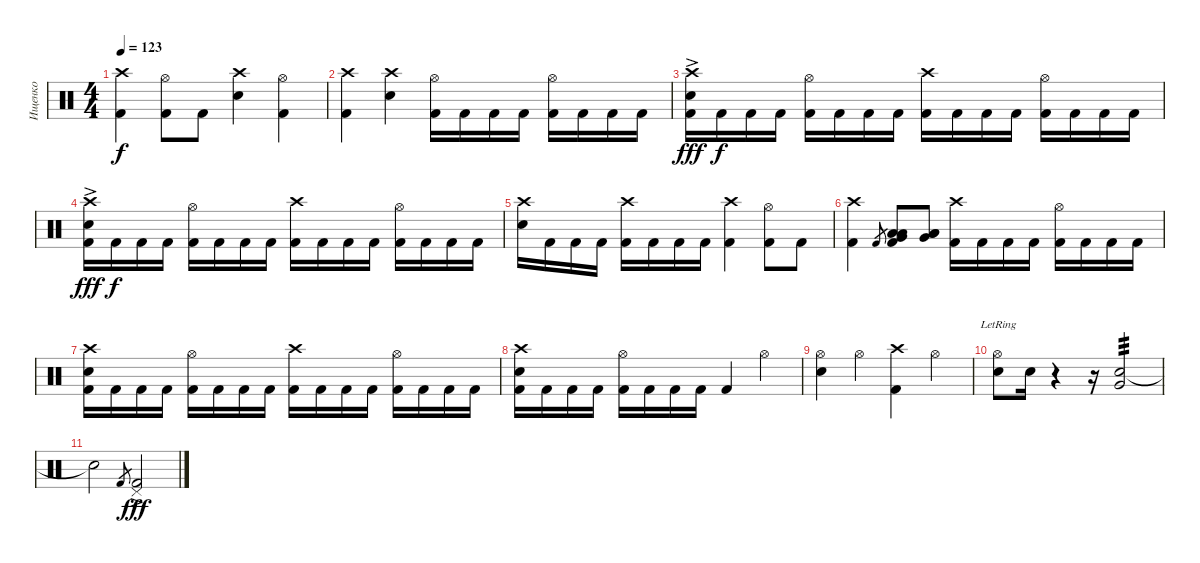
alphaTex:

\track ("Ищенко" "Ищенко") {instrument percussion}
\staff {score}
\articulation defaults
\ts (4 4)
\tempo 123
\clef neutral
\ks c
("Crash high (hit)" "Kick (hit) 2").4{dy f} ("Hi-Hat (open)" "Kick (hit) 2").8 "Kick (hit) 2".8 ("Crash high (hit)" "Electric Snare (hit)").4 ("Kick (hit) 2" "Hi-Hat (open)").4 |
("Crash high (hit)" "Kick (hit) 2").4 ("Crash high (hit)" "Electric Snare (hit)").4 ("Hi-Hat (open)" "Kick (hit) 2").16 "Kick (hit) 2".16 "Kick (hit) 2".16 "Kick (hit) 2".16 ("Hi-Hat (open)" "Kick (hit) 2").16 "Kick (hit) 2".16 "Kick (hit) 2".16 "Kick (hit) 2".16 |
("Crash high (hit)" "Kick (hit) 2" "Electric Snare (hit)"{ac}).16{dy fff} "Kick (hit) 2".16{dy f} "Kick (hit) 2".16 "Kick (hit) 2".16 ("Hi-Hat (open)" "Kick (hit) 2").16 "Kick (hit) 2".16 "Kick (hit) 2".16 "Kick (hit) 2".16 ("Crash high (hit)" "Kick (hit) 2").16 "Kick (hit) 2".16 "Kick (hit) 2".16 "Kick (hit) 2".16 ("Hi-Hat (open)" "Kick (hit) 2").16 "Kick (hit) 2".16 "Kick (hit) 2".16 "Kick (hit) 2".16 |
("Crash high (hit)" "Kick (hit) 2" "Electric Snare (hit)"{ac}).16{dy fff} "Kick (hit) 2".16{dy f} "Kick (hit) 2".16 "Kick (hit) 2".16 ("Hi-Hat (open)" "Kick (hit) 2").16 "Kick (hit) 2".16 "Kick (hit) 2".16 "Kick (hit) 2".16 ("Crash high (hit)" "Kick (hit) 2").16 "Kick (hit) 2".16 "Kick (hit) 2".16 "Kick (hit) 2".16 ("Hi-Hat (open)" "Kick (hit) 2").16 "Kick (hit) 2".16 "Kick (hit) 2".16 "Kick (hit) 2".16 |
("Crash high (hit)" "Electric Snare (hit)").16 "Kick (hit) 2".16 "Kick (hit) 2".16 "Kick (hit) 2".16 ("Crash high (hit)" "Kick (hit) 2").16 "Kick (hit) 2".16 "Kick (hit) 2".16 "Kick (hit) 2".16 ("Crash high (hit)" "Kick (hit) 2").4 ("Hi-Hat (open)" "Kick (hit) 2").8 "Kick (hit) 2".8 |
("Crash high (hit)" "Kick (hit) 2").4 "Kick (hit) 2".8{gr} ("Low Floor Tom (hit)" "Low Tom (hit)" "Very Low Tom (hit)" "Kick (hit) 2").8 ("Low Floor Tom (hit)" "Low Tom (hit)" "Very Low Tom (hit)").8 ("Crash high (hit)" "Kick (hit) 2").16 "Kick (hit) 2".16 "Kick (hit) 2".16 "Kick (hit) 2".16 ("Hi-Hat (open)" "Kick (hit) 2").16 "Kick (hit) 2".16 "Kick (hit) 2".16 "Kick (hit) 2".16 |
("Crash high (hit)" "Kick (hit) 2" "Electric Snare (hit)").16 "Kick (hit) 2".16 "Kick (hit) 2".16 "Kick (hit) 2".16 ("Hi-Hat (open)" "Kick (hit) 2").16 "Kick (hit) 2".16 "Kick (hit) 2".16 "Kick (hit) 2".16 ("Crash high (hit)" "Kick (hit) 2").16 "Kick (hit) 2".16 "Kick (hit) 2".16 "Kick (hit) 2".16 ("Hi-Hat (open)" "Kick (hit) 2").16 "Kick (hit) 2".16 "Kick (hit) 2".16 "Kick (hit) 2".16 |
("Crash high (hit)" "Kick (hit) 2" "Electric Snare (hit)").16 "Kick (hit) 2".16 "Kick (hit) 2".16 "Kick (hit) 2".16 ("Hi-Hat (open)" "Kick (hit) 2").16 "Kick (hit) 2".16 "Kick (hit) 2".16 "Kick (hit) 2".16 "Kick (hit) 2".4 "Hi-Hat (open)".4 |
("Electric Snare (hit)" "Hi-Hat (open)").4 "Hi-Hat (open)".4 ("Kick (hit) 2" "Crash high (hit)").4 "Hi-Hat (open)".4 |
("Hi-Hat (open)"{lr} "Electric Snare (hit)").8 "Electric Snare (hit)".16 r.4 r.16 ("Electric Snare (hit)" "Very Low Tom (hit)").2{tp 3} |
"Electric Snare (hit)"{t}.2 "Kick (hit) 2".8{gr} ("Kick (hit) 2"{ac} "Pedal Hi-Hat (hit)").2{dy fff}
